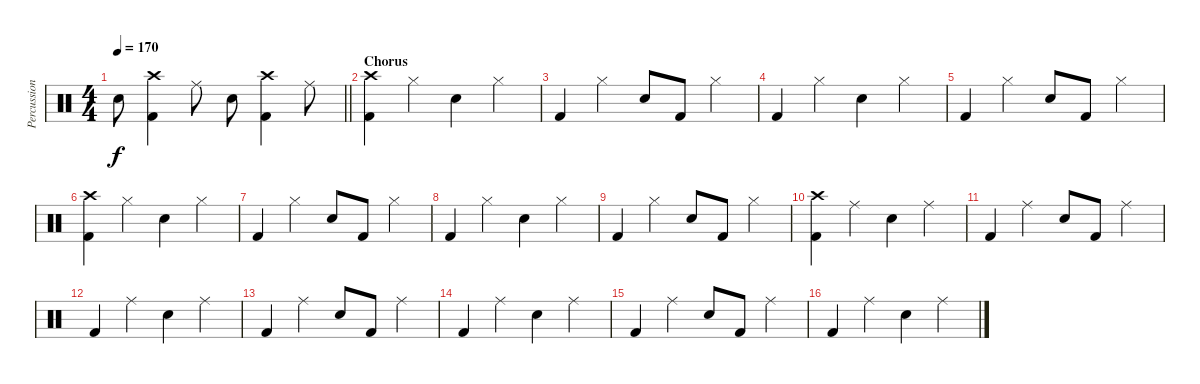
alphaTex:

\track ("Percussion" "Percussion") {instrument percussion}
\staff {score}
\articulation defaults
\ts (4 4)
\tempo 170
\clef neutral
\barLineRight lightlight
\ks c "Snare (hit) 2".8{dy f}
("Kick (hit) 2" "Crash high (hit)").4 "Ride (middle)".8 "Snare (hit) 2".8 ("Kick (hit) 2" "Crash high (hit)").4 "Ride (middle)".8 |
\section ("" "Chorus")
("Crash high (hit)" "Kick (hit) 2").4 "Hi-Hat (closed)".4 "Snare (hit) 2".4 "Hi-Hat (closed)".4 |
"Kick (hit) 2".4 "Hi-Hat (closed)".4 "Snare (hit) 2".8 "Kick (hit) 2".8 "Hi-Hat (closed)".4 |
"Kick (hit) 2".4 "Hi-Hat (closed)".4 "Snare (hit) 2".4 "Hi-Hat (closed)".4 |
"Kick (hit) 2".4 "Hi-Hat (closed)".4 "Snare (hit) 2".8 "Kick (hit) 2".8 "Hi-Hat (closed)".4 |
("Crash high (hit)" "Kick (hit) 2").4 "Hi-Hat (closed)".4 "Snare (hit) 2".4 "Hi-Hat (closed)".4 |
"Kick (hit) 2".4 "Hi-Hat (closed)".4 "Snare (hit) 2".8 "Kick (hit) 2".8 "Hi-Hat (closed)".4 |
"Kick (hit) 2".4 "Hi-Hat (closed)".4 "Snare (hit) 2".4 "Hi-Hat (closed)".4 |
"Kick (hit) 2".4 "Hi-Hat (closed)".4 "Snare (hit) 2".8 "Kick (hit) 2".8 "Hi-Hat (closed)".4 |
("Crash high (hit)" "Kick (hit) 2").4 "Ride (middle)".4 "Snare (hit) 2".4 "Ride (middle)".4 |
"Kick (hit) 2".4 "Ride (middle)".4 "Snare (hit) 2".8 "Kick (hit) 2".8 "Ride (middle)".4 |
"Kick (hit) 2".4 "Ride (middle)".4 "Snare (hit) 2".4 "Ride (middle)".4 |
"Kick (hit) 2".4 "Ride (middle)".4 "Snare (hit) 2".8 "Kick (hit) 2".8 "Ride (middle)".4 |
"Kick (hit) 2".4 "Ride (middle)".4 "Snare (hit) 2".4 "Ride (middle)".4 |
"Kick (hit) 2".4 "Ride (middle)".4 "Snare (hit) 2".8 "Kick (hit) 2".8 "Ride (middle)".4 |
"Kick (hit) 2".4 "Ride (middle)".4 "Snare (hit) 2".4 "Ride (middle)".4
